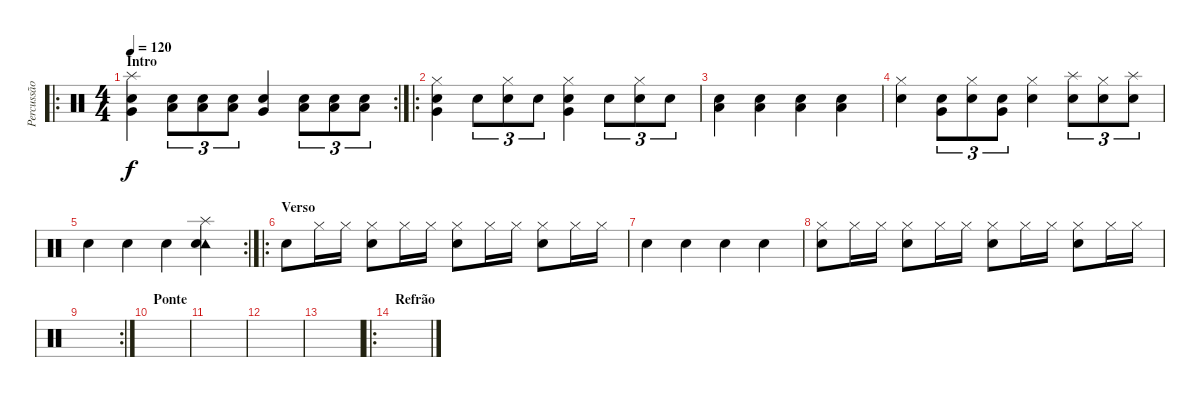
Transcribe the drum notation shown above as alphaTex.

\track ("Percussão" "Percussão") {instrument percussion}
\staff {score}
\articulation defaults
\ro
\rc 2
\ts (4 4)
\section ("" "Intro")
\tempo 120
\clef neutral
\ks c
("Electric Snare (hit)" "Very Low Tom (hit)" "Splash (hit)").4{dy f} ("Electric Snare (hit)" "Low Tom (hit)").8{tu (3 2)} ("Electric Snare (hit)" "Low Tom (hit)").8{tu (3 2)} ("Electric Snare (hit)" "Low Tom (hit)").8{tu (3 2)} ("Very Low Tom (hit)" "Electric Snare (hit)").4 ("Electric Snare (hit)" "Low Tom (hit)").8{tu (3 2)} ("Electric Snare (hit)" "Low Tom (hit)").8{tu (3 2)} ("Electric Snare (hit)" "Low Tom (hit)").8{tu (3 2)} |
\ro
("Very Low Tom (hit)" "Hi-Hat (closed)" "Electric Snare (hit)").4 "Electric Snare (hit)".8{tu (3 2)} ("Hi-Hat (closed)" "Electric Snare (hit)").8{tu (3 2)} "Electric Snare (hit)".8{tu (3 2)} ("Very Low Tom (hit)" "Hi-Hat (closed)" "Electric Snare (hit)").4 "Electric Snare (hit)".8{tu (3 2)} ("Hi-Hat (closed)" "Electric Snare (hit)").8{tu (3 2)} "Electric Snare (hit)".8{tu (3 2)} |
("Electric Snare (hit)" "Low Tom (hit)").4 ("Electric Snare (hit)" "Low Tom (hit)").4 ("Electric Snare (hit)" "Low Tom (hit)").4 ("Electric Snare (hit)" "Low Tom (hit)").4 |
("Hi-Hat (closed)" "Electric Snare (hit)").4 ("Very Low Tom (hit)" "Electric Snare (hit)").8{tu (3 2)} ("Hi-Hat (closed)" "Electric Snare (hit)").8{tu (3 2)} ("Very Low Tom (hit)" "Electric Snare (hit)").8{tu (3 2)} ("Hi-Hat (closed)" "Electric Snare (hit)").4 ("Electric Snare (hit)" "Splash (hit)").8{tu (3 2)} ("Electric Snare (hit)" "Hi-Hat (closed)").8{tu (3 2)} ("Electric Snare (hit)" "Splash (hit)").8{tu (3 2)} |
\rc 2 "Electric Snare (hit)".4 "Electric Snare (hit)".4 "Electric Snare (hit)".4
("Splash (hit)" "Tambourine (hit)" "Electric Snare (hit)").4 |
\ro
\section ("" "Verso")
"Electric Snare (hit)".8 "Hi-Hat (closed)".16 "Hi-Hat (closed)".16 ("Electric Snare (hit)" "Hi-Hat (closed)").8 "Hi-Hat (closed)".16 "Hi-Hat (closed)".16 ("Electric Snare (hit)" "Hi-Hat (closed)").8 "Hi-Hat (closed)".16 "Hi-Hat (closed)".16 ("Electric Snare (hit)" "Hi-Hat (closed)").8 "Hi-Hat (closed)".16 "Hi-Hat (closed)".16 |
"Electric Snare (hit)".4 "Electric Snare (hit)".4 "Electric Snare (hit)".4 "Electric Snare (hit)".4 |
("Electric Snare (hit)" "Hi-Hat (closed)").8 "Hi-Hat (closed)".16 "Hi-Hat (closed)".16 ("Electric Snare (hit)" "Hi-Hat (closed)").8 "Hi-Hat (closed)".16 "Hi-Hat (closed)".16 ("Electric Snare (hit)" "Hi-Hat (closed)").8 "Hi-Hat (closed)".16 "Hi-Hat (closed)".16 ("Electric Snare (hit)" "Hi-Hat (closed)").8 "Hi-Hat (closed)".16 "Hi-Hat (closed)".16 |
\rc 2
|
\section ("" "Ponte")
|
|
|
|
\ro
\section ("" "Refrão")
